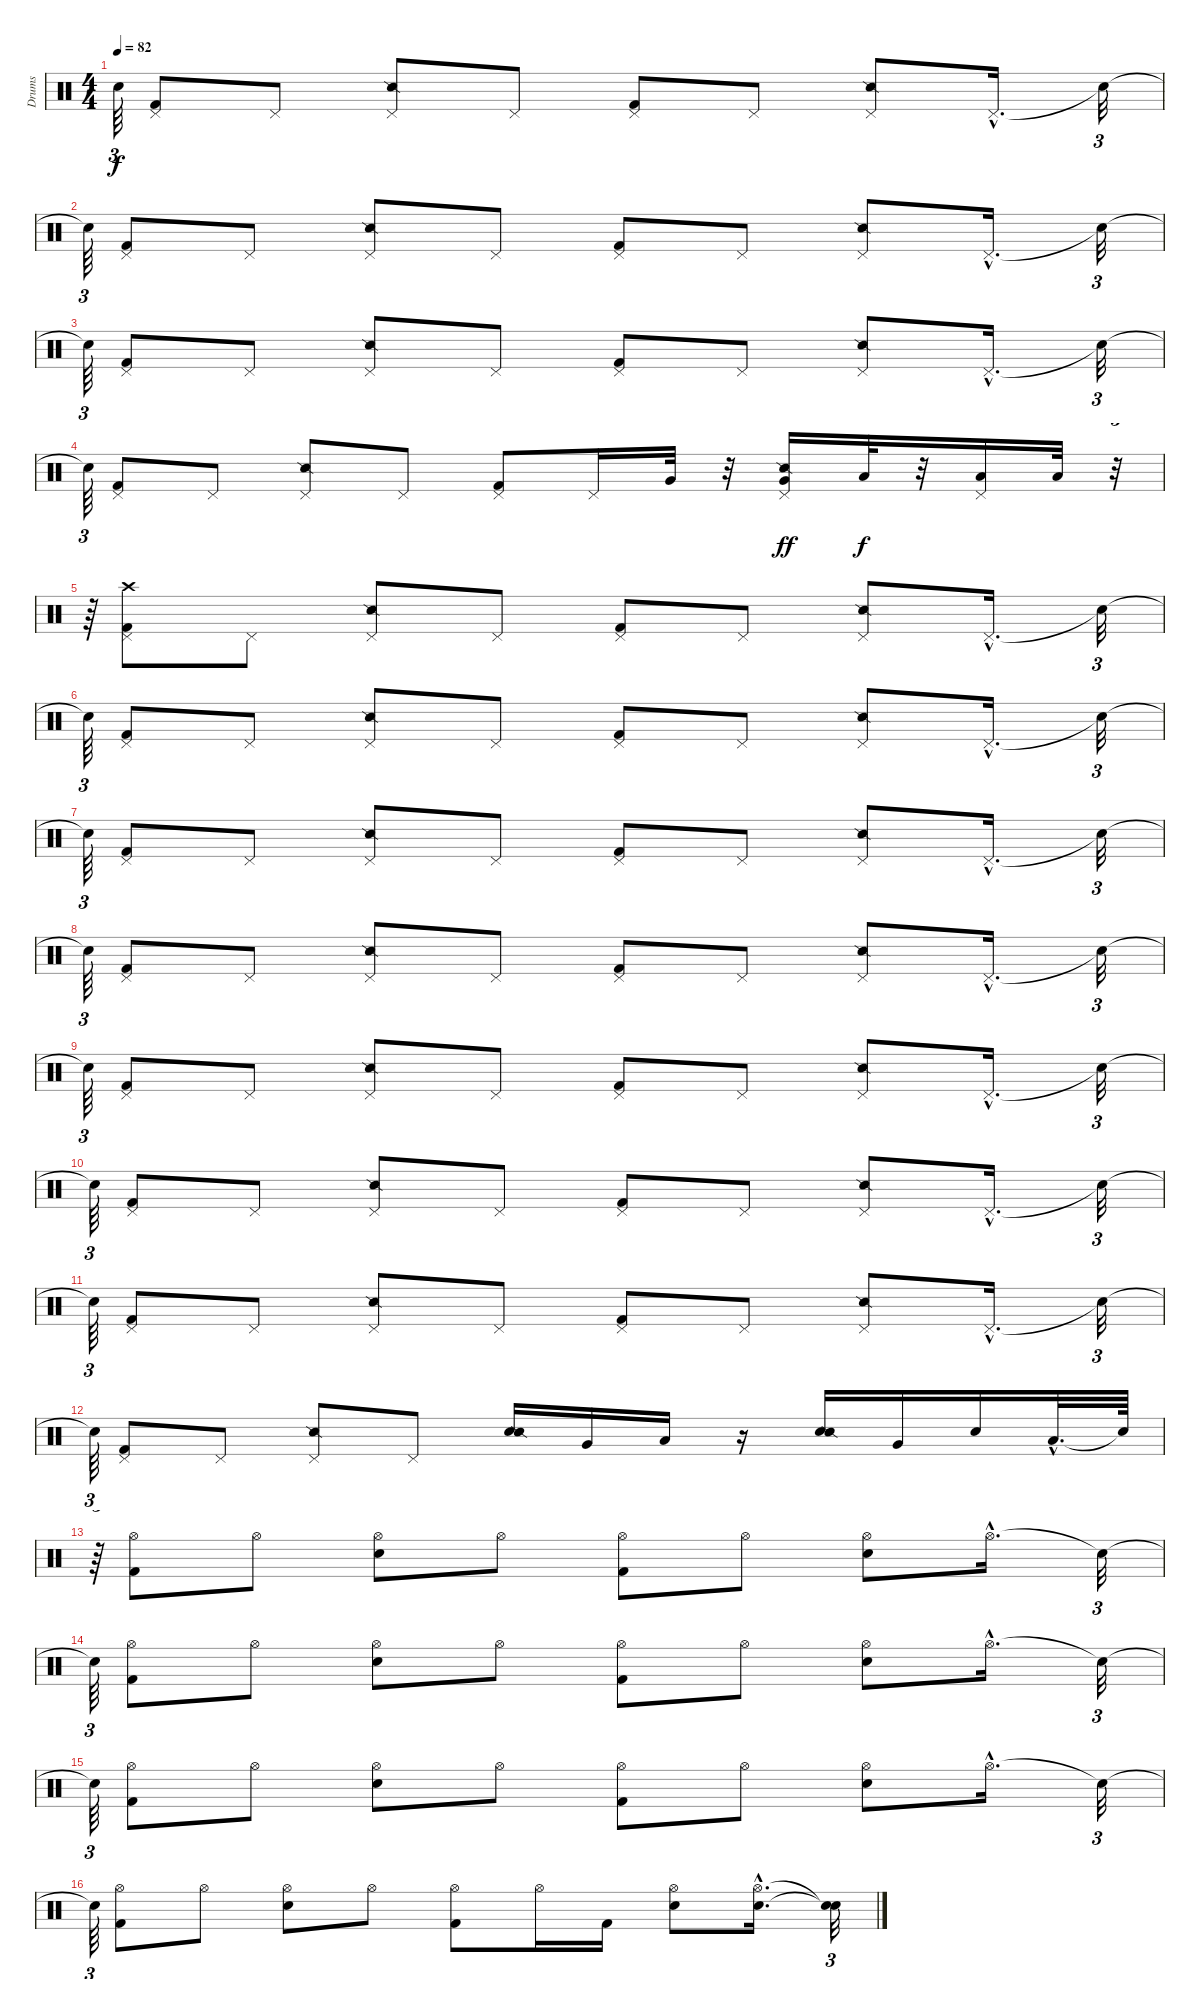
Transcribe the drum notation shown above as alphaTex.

\track ("Drums" "Drums") {instrument percussion}
\staff {score}
\articulation defaults
\ts (4 4)
\tempo 82
\clef neutral
\ks c "Snare (hit)"{t}.64{tu (3 2) dy f}
("Pedal Hi-Hat (hit)" "Kick (hit) 2").8 "Pedal Hi-Hat (hit)".8 ("Pedal Hi-Hat (hit)" "Snare (side stick) 2").8 "Pedal Hi-Hat (hit)".8 ("Pedal Hi-Hat (hit)" "Kick (hit) 2").8 "Pedal Hi-Hat (hit)".8 ("Pedal Hi-Hat (hit)" "Snare (side stick) 2").8 "Pedal Hi-Hat (hit)"{hac}.16{d} "Snare (hit)"{t}.32{tu (3 2)} |
"Snare (hit)"{t}.64{tu (3 2)} ("Pedal Hi-Hat (hit)" "Kick (hit) 2").8 "Pedal Hi-Hat (hit)".8 ("Pedal Hi-Hat (hit)" "Snare (side stick) 2").8 "Pedal Hi-Hat (hit)".8 ("Pedal Hi-Hat (hit)" "Kick (hit) 2").8 "Pedal Hi-Hat (hit)".8 ("Pedal Hi-Hat (hit)" "Snare (side stick) 2").8 "Pedal Hi-Hat (hit)"{hac}.16{d} "Snare (hit)"{t}.32{tu (3 2)} |
"Snare (hit)"{t}.64{tu (3 2)} ("Pedal Hi-Hat (hit)" "Kick (hit) 2").8 "Pedal Hi-Hat (hit)".8 ("Pedal Hi-Hat (hit)" "Snare (side stick) 2").8 "Pedal Hi-Hat (hit)".8 ("Pedal Hi-Hat (hit)" "Kick (hit) 2").8 "Pedal Hi-Hat (hit)".8 ("Pedal Hi-Hat (hit)" "Snare (side stick) 2").8 "Pedal Hi-Hat (hit)"{hac}.16{d} "Snare (hit)"{t}.32{tu (3 2)} |
"Snare (hit)"{t}.64{tu (3 2)} ("Pedal Hi-Hat (hit)" "Kick (hit) 2").8 "Pedal Hi-Hat (hit)".8 ("Pedal Hi-Hat (hit)" "Snare (side stick) 2").8 "Pedal Hi-Hat (hit)".8 ("Pedal Hi-Hat (hit)" "Kick (hit) 2").8 "Pedal Hi-Hat (hit)".16 "Very Low Tom (hit)".32 r.32 ("Very Low Tom (hit)" "Pedal Hi-Hat (hit)" "Snare (side stick) 2").16{dy ff} "Low Floor Tom (hit)".32{dy f} r.32 ("Low Floor Tom (hit)" "Pedal Hi-Hat (hit)").16 "Low Floor Tom (hit)".32 r.32{tu (3 2)} |
r.64{tu (3 2)} ("Crash high (hit)" "Pedal Hi-Hat (hit)" "Kick (hit) 2").8{volume 16 balance 8} "Pedal Hi-Hat (hit)".8 ("Pedal Hi-Hat (hit)" "Snare (side stick) 2").8 "Pedal Hi-Hat (hit)".8 ("Pedal Hi-Hat (hit)" "Kick (hit) 2").8 "Pedal Hi-Hat (hit)".8 ("Pedal Hi-Hat (hit)" "Snare (side stick) 2").8 "Pedal Hi-Hat (hit)"{hac}.16{d} "Snare (hit)"{t}.32{tu (3 2)} |
"Snare (hit)"{t}.64{tu (3 2)} ("Pedal Hi-Hat (hit)" "Kick (hit) 2").8 "Pedal Hi-Hat (hit)".8 ("Pedal Hi-Hat (hit)" "Snare (side stick) 2").8 "Pedal Hi-Hat (hit)".8 ("Pedal Hi-Hat (hit)" "Kick (hit) 2").8 "Pedal Hi-Hat (hit)".8 ("Pedal Hi-Hat (hit)" "Snare (side stick) 2").8 "Pedal Hi-Hat (hit)"{hac}.16{d} "Snare (hit)"{t}.32{tu (3 2)} |
"Snare (hit)"{t}.64{tu (3 2)} ("Pedal Hi-Hat (hit)" "Kick (hit) 2").8 "Pedal Hi-Hat (hit)".8 ("Pedal Hi-Hat (hit)" "Snare (side stick) 2").8 "Pedal Hi-Hat (hit)".8 ("Pedal Hi-Hat (hit)" "Kick (hit) 2").8 "Pedal Hi-Hat (hit)".8 ("Pedal Hi-Hat (hit)" "Snare (side stick) 2").8 "Pedal Hi-Hat (hit)"{hac}.16{d} "Snare (hit)"{t}.32{tu (3 2)} |
"Snare (hit)"{t}.64{tu (3 2)} ("Pedal Hi-Hat (hit)" "Kick (hit) 2").8 "Pedal Hi-Hat (hit)".8 ("Pedal Hi-Hat (hit)" "Snare (side stick) 2").8 "Pedal Hi-Hat (hit)".8 ("Pedal Hi-Hat (hit)" "Kick (hit) 2").8 "Pedal Hi-Hat (hit)".8 ("Pedal Hi-Hat (hit)" "Snare (side stick) 2").8 "Pedal Hi-Hat (hit)"{hac}.16{d} "Snare (hit)"{t}.32{tu (3 2)} |
"Snare (hit)"{t}.64{tu (3 2)} ("Pedal Hi-Hat (hit)" "Kick (hit) 2").8 "Pedal Hi-Hat (hit)".8 ("Pedal Hi-Hat (hit)" "Snare (side stick) 2").8 "Pedal Hi-Hat (hit)".8 ("Pedal Hi-Hat (hit)" "Kick (hit) 2").8 "Pedal Hi-Hat (hit)".8 ("Pedal Hi-Hat (hit)" "Snare (side stick) 2").8 "Pedal Hi-Hat (hit)"{hac}.16{d} "Snare (hit)"{t}.32{tu (3 2)} |
"Snare (hit)"{t}.64{tu (3 2)} ("Pedal Hi-Hat (hit)" "Kick (hit) 2").8 "Pedal Hi-Hat (hit)".8 ("Pedal Hi-Hat (hit)" "Snare (side stick) 2").8 "Pedal Hi-Hat (hit)".8 ("Pedal Hi-Hat (hit)" "Kick (hit) 2").8 "Pedal Hi-Hat (hit)".8 ("Pedal Hi-Hat (hit)" "Snare (side stick) 2").8 "Pedal Hi-Hat (hit)"{hac}.16{d} "Snare (hit)"{t}.32{tu (3 2)} |
"Snare (hit)"{t}.64{tu (3 2)} ("Pedal Hi-Hat (hit)" "Kick (hit) 2").8 "Pedal Hi-Hat (hit)".8 ("Pedal Hi-Hat (hit)" "Snare (side stick) 2").8 "Pedal Hi-Hat (hit)".8 ("Pedal Hi-Hat (hit)" "Kick (hit) 2").8 "Pedal Hi-Hat (hit)".8 ("Pedal Hi-Hat (hit)" "Snare (side stick) 2").8 "Pedal Hi-Hat (hit)"{hac}.16{d} "Snare (hit)"{t}.32{tu (3 2)} |
"Snare (hit)"{t}.64{tu (3 2)} ("Pedal Hi-Hat (hit)" "Kick (hit) 2").8 "Pedal Hi-Hat (hit)".8 ("Pedal Hi-Hat (hit)" "Snare (side stick) 2").8 "Pedal Hi-Hat (hit)".8 ("Electric Snare (hit)" "Snare (side stick) 2").16 "Very Low Tom (hit)".16 "Low Floor Tom (hit)".16 r.16 ("Electric Snare (hit)" "Snare (side stick) 2").16 "Very Low Tom (hit)".16 "Snare (hit)".16 "Low Floor Tom (hit)"{hac}.32{d} "Snare (hit)"{t}.64 |
r.64{tu (3 2)} ("Hi-Hat (open)" "Kick (hit) 2").8{volume 16 balance 8} "Hi-Hat (open)".8 ("Hi-Hat (open)" "Electric Snare (hit)").8 "Hi-Hat (open)".8 ("Hi-Hat (open)" "Kick (hit) 2").8 "Hi-Hat (open)".8 ("Hi-Hat (open)" "Electric Snare (hit)").8 "Hi-Hat (open)"{hac}.16{d} "Snare (hit)"{t}.32{tu (3 2)} |
"Snare (hit)"{t}.64{tu (3 2)} ("Hi-Hat (open)" "Kick (hit) 2").8 "Hi-Hat (open)".8 ("Hi-Hat (open)" "Electric Snare (hit)").8 "Hi-Hat (open)".8 ("Hi-Hat (open)" "Kick (hit) 2").8 "Hi-Hat (open)".8 ("Hi-Hat (open)" "Electric Snare (hit)").8 "Hi-Hat (open)"{hac}.16{d} "Snare (hit)"{t}.32{tu (3 2)} |
"Snare (hit)"{t}.64{tu (3 2)} ("Hi-Hat (open)" "Kick (hit) 2").8 "Hi-Hat (open)".8 ("Hi-Hat (open)" "Electric Snare (hit)").8 "Hi-Hat (open)".8 ("Hi-Hat (open)" "Kick (hit) 2").8 "Hi-Hat (open)".8 ("Hi-Hat (open)" "Electric Snare (hit)").8 "Hi-Hat (open)"{hac}.16{d} "Snare (hit)"{t}.32{tu (3 2)} |
"Snare (hit)"{t}.64{tu (3 2)} ("Hi-Hat (open)" "Kick (hit) 2").8 "Hi-Hat (open)".8 ("Hi-Hat (open)" "Electric Snare (hit)").8 "Hi-Hat (open)".8 ("Hi-Hat (open)" "Kick (hit) 2").8 "Hi-Hat (open)".16 "Kick (hit) 2".16 ("Hi-Hat (open)" "Electric Snare (hit)").8 ("Hi-Hat (open)"{hac} "Electric Snare (hit)"{hac}).16{d} ("Snare (hit)"{t} "Snare (hit)"{t}).32{tu (3 2)}
